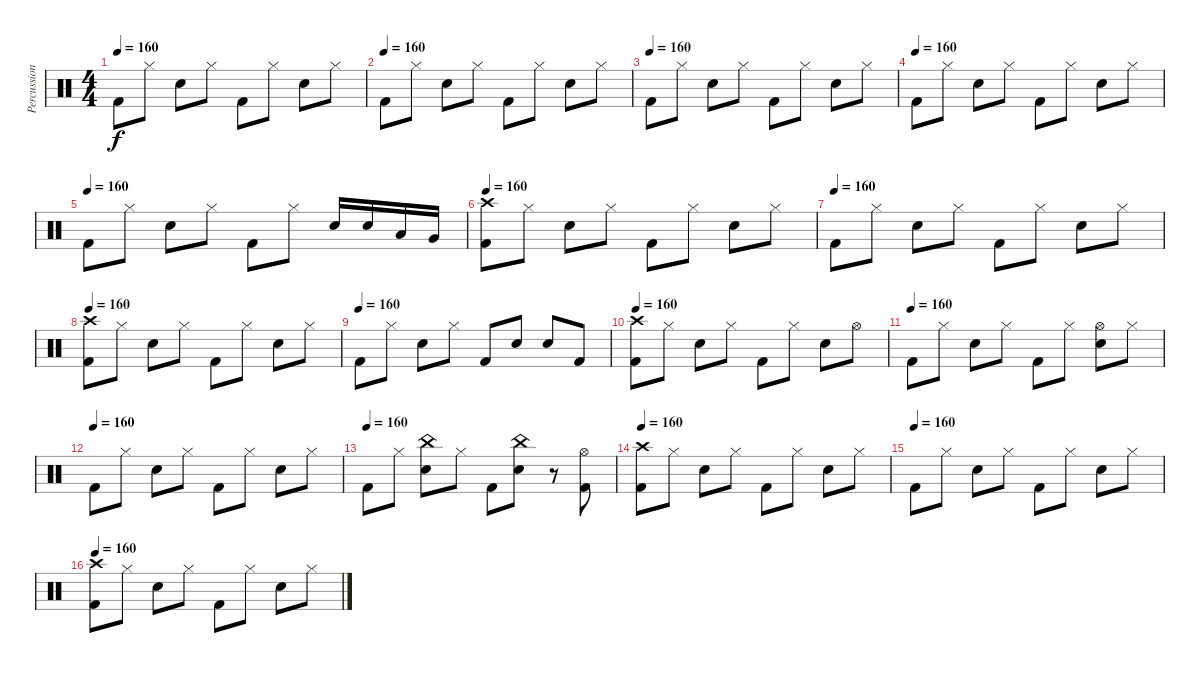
\track ("Percussion" "Percussion") {instrument percussion}
\staff {score}
\articulation defaults
\ts (4 4)
\tempo 160
\clef neutral
\ks c "Kick (hit) 2".8{dy f} "Hi-Hat (closed)".8 "Snare (hit) 2".8 "Hi-Hat (closed)".8 "Kick (hit) 2".8 "Hi-Hat (closed)".8 "Snare (hit) 2".8 "Hi-Hat (closed)".8
|
\tempo (160)
"Kick (hit) 2".8 "Hi-Hat (closed)".8 "Snare (hit) 2".8 "Hi-Hat (closed)".8 "Kick (hit) 2".8 "Hi-Hat (closed)".8 "Snare (hit) 2".8 "Hi-Hat (closed)".8 |
\tempo (160)
"Kick (hit) 2".8 "Hi-Hat (closed)".8 "Snare (hit) 2".8 "Hi-Hat (closed)".8 "Kick (hit) 2".8 "Hi-Hat (closed)".8 "Snare (hit) 2".8 "Hi-Hat (closed)".8 |
\tempo (160)
"Kick (hit) 2".8 "Hi-Hat (closed)".8 "Snare (hit) 2".8 "Hi-Hat (closed)".8 "Kick (hit) 2".8 "Hi-Hat (closed)".8 "Snare (hit) 2".8 "Hi-Hat (closed)".8 |
\tempo (160)
"Kick (hit) 2".8 "Hi-Hat (closed)".8 "Snare (hit) 2".8 "Hi-Hat (closed)".8 "Kick (hit) 2".8 "Hi-Hat (closed)".8 "Snare (hit) 2".16 "Snare (hit) 2".16 "Low Tom (hit)".16 "Very Low Tom (hit)".16 |
\tempo 160
("Crash high (hit)" "Kick (hit) 2").8 "Hi-Hat (closed)".8 "Snare (hit) 2".8 "Hi-Hat (closed)".8 "Kick (hit) 2".8 "Hi-Hat (closed)".8 "Snare (hit) 2".8 "Hi-Hat (closed)".8 |
\tempo (160)
"Kick (hit) 2".8 "Hi-Hat (closed)".8 "Snare (hit) 2".8 "Hi-Hat (closed)".8 "Kick (hit) 2".8 "Hi-Hat (closed)".8 "Snare (hit) 2".8 "Hi-Hat (closed)".8 |
\tempo 160
("Crash high (hit)" "Kick (hit) 2").8 "Hi-Hat (closed)".8 "Snare (hit) 2".8 "Hi-Hat (closed)".8 "Kick (hit) 2".8 "Hi-Hat (closed)".8 "Snare (hit) 2".8 "Hi-Hat (closed)".8 |
\tempo (160)
"Kick (hit) 2".8 "Hi-Hat (closed)".8 "Snare (hit) 2".8 "Hi-Hat (closed)".8 "Kick (hit) 2".8 "Snare (hit) 2".8 "Snare (hit) 2".8 "Kick (hit) 2".8 |
\tempo 160
("Crash high (hit)" "Kick (hit) 2").8 "Hi-Hat (closed)".8 "Snare (hit) 2".8 "Hi-Hat (closed)".8 "Kick (hit) 2".8 "Hi-Hat (closed)".8 "Snare (hit) 2".8 "Hi-Hat (open)".8 |
\tempo (160)
"Kick (hit) 2".8 "Hi-Hat (closed)".8 "Snare (hit) 2".8 "Hi-Hat (closed)".8 "Kick (hit) 2".8 "Hi-Hat (closed)".8 ("Hi-Hat (open)" "Snare (hit) 2").8 "Hi-Hat (closed)".8 |
\tempo (160)
"Kick (hit) 2".8 "Hi-Hat (closed)".8 "Snare (hit) 2".8 "Hi-Hat (closed)".8 "Kick (hit) 2".8 "Hi-Hat (closed)".8 "Snare (hit) 2".8 "Hi-Hat (closed)".8 |
\tempo (160)
"Kick (hit) 2".8 "Hi-Hat (closed)".8 ("China (hit)" "Snare (hit) 2").8 "Hi-Hat (closed)".8 "Kick (hit) 2".8 ("China (hit)" "Snare (hit) 2").8 r.8 ("Hi-Hat (open)" "Kick (hit) 2").8 |
\tempo 160
("Crash high (hit)" "Kick (hit) 2").8 "Hi-Hat (closed)".8 "Snare (hit) 2".8 "Hi-Hat (closed)".8 "Kick (hit) 2".8 "Hi-Hat (closed)".8 "Snare (hit) 2".8 "Hi-Hat (closed)".8 |
\tempo (160)
"Kick (hit) 2".8 "Hi-Hat (closed)".8 "Snare (hit) 2".8 "Hi-Hat (closed)".8 "Kick (hit) 2".8 "Hi-Hat (closed)".8 "Snare (hit) 2".8 "Hi-Hat (closed)".8 |
\tempo 160
("Crash high (hit)" "Kick (hit) 2").8 "Hi-Hat (closed)".8 "Snare (hit) 2".8 "Hi-Hat (closed)".8 "Kick (hit) 2".8 "Hi-Hat (closed)".8 "Snare (hit) 2".8 "Hi-Hat (closed)".8
